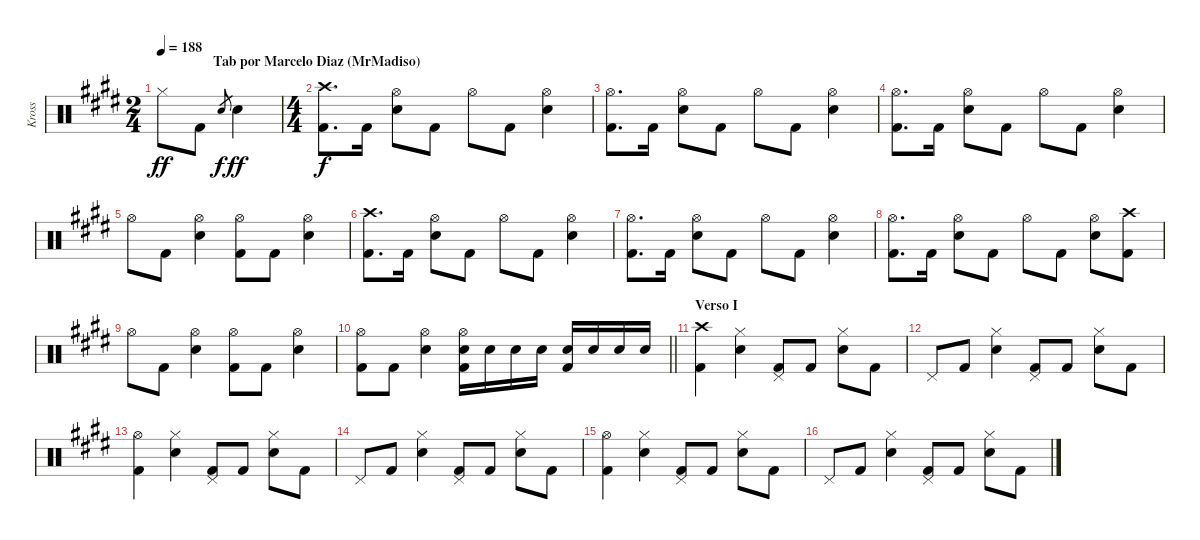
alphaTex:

\track ("Kross" "Kross") {instrument percussion}
\staff {score}
\articulation defaults
\ts (2 4)
\section ("" "                Tab por Marcelo Diaz (MrMadiso)")
\tempo 188
\clef neutral
\ks e "Hi-Hat (closed)".8{dy ff} "Kick (hit) 2".8 "Electric Snare (hit)".8{gr dy f} "Electric Snare (hit)".4{dy ff}
|
\ts (4 4)
("Crash high (hit)" "Kick (hit) 2").8{d dy f} "Kick (hit) 2".16 ("Hi-Hat (open)" "Electric Snare (hit)").8 "Kick (hit) 2".8 "Hi-Hat (open)".8 "Kick (hit) 2".8 ("Hi-Hat (open)" "Electric Snare (hit)").4 |
("Hi-Hat (open)" "Kick (hit) 2").8{d} "Kick (hit) 2".16 ("Hi-Hat (open)" "Electric Snare (hit)").8 "Kick (hit) 2".8 "Hi-Hat (open)".8 "Kick (hit) 2".8 ("Hi-Hat (open)" "Electric Snare (hit)").4 |
("Hi-Hat (open)" "Kick (hit) 2").8{d} "Kick (hit) 2".16 ("Hi-Hat (open)" "Electric Snare (hit)").8 "Kick (hit) 2".8 "Hi-Hat (open)".8 "Kick (hit) 2".8 ("Hi-Hat (open)" "Electric Snare (hit)").4 |
"Hi-Hat (open)".8 "Kick (hit) 2".8 ("Hi-Hat (open)" "Electric Snare (hit)").4 ("Hi-Hat (open)" "Kick (hit) 2").8 "Kick (hit) 2".8 ("Hi-Hat (open)" "Electric Snare (hit)").4 |
("Crash high (hit)" "Kick (hit) 2").8{d} "Kick (hit) 2".16 ("Hi-Hat (open)" "Electric Snare (hit)").8 "Kick (hit) 2".8 "Hi-Hat (open)".8 "Kick (hit) 2".8 ("Hi-Hat (open)" "Electric Snare (hit)").4 |
("Hi-Hat (open)" "Kick (hit) 2").8{d} "Kick (hit) 2".16 ("Hi-Hat (open)" "Electric Snare (hit)").8 "Kick (hit) 2".8 "Hi-Hat (open)".8 "Kick (hit) 2".8 ("Hi-Hat (open)" "Electric Snare (hit)").4 |
("Hi-Hat (open)" "Kick (hit) 2").8{d} "Kick (hit) 2".16 ("Hi-Hat (open)" "Electric Snare (hit)").8 "Kick (hit) 2".8 "Hi-Hat (open)".8 "Kick (hit) 2".8 ("Hi-Hat (open)" "Electric Snare (hit)").8 ("Crash high (hit)" "Kick (hit) 2").8 |
"Hi-Hat (open)".8 "Kick (hit) 2".8 ("Hi-Hat (open)" "Electric Snare (hit)").4 ("Hi-Hat (open)" "Kick (hit) 2").8 "Kick (hit) 2".8 ("Hi-Hat (open)" "Electric Snare (hit)").4 |
\barLineRight lightlight
("Hi-Hat (open)" "Kick (hit) 2").8 "Kick (hit) 2".8 ("Hi-Hat (open)" "Electric Snare (hit)").4 ("Hi-Hat (open)" "Electric Snare (hit)" "Kick (hit) 2").16 "Electric Snare (hit)".16 "Electric Snare (hit)".16 "Electric Snare (hit)".16 ("Electric Snare (hit)" "Kick (hit) 2").16 "Electric Snare (hit)".16 "Electric Snare (hit)".16 "Electric Snare (hit)".16 |
\section ("" "Verso I")
("Crash high (hit)" "Kick (hit) 2").4 ("Hi-Hat (closed)" "Electric Snare (hit)").4 ("Pedal Hi-Hat (hit)" "Kick (hit) 2").8 "Kick (hit) 2".8 ("Hi-Hat (closed)" "Electric Snare (hit)").8 "Kick (hit) 2".8 |
"Pedal Hi-Hat (hit)".8 "Kick (hit) 2".8 ("Hi-Hat (closed)" "Electric Snare (hit)").4 ("Pedal Hi-Hat (hit)" "Kick (hit) 2").8 "Kick (hit) 2".8 ("Hi-Hat (closed)" "Electric Snare (hit)").8 "Kick (hit) 2".8 |
("Hi-Hat (open)" "Kick (hit) 2").4 ("Hi-Hat (closed)" "Electric Snare (hit)").4 ("Pedal Hi-Hat (hit)" "Kick (hit) 2").8 "Kick (hit) 2".8 ("Hi-Hat (closed)" "Electric Snare (hit)").8 "Kick (hit) 2".8 |
"Pedal Hi-Hat (hit)".8 "Kick (hit) 2".8 ("Hi-Hat (closed)" "Electric Snare (hit)").4 ("Pedal Hi-Hat (hit)" "Kick (hit) 2").8 "Kick (hit) 2".8 ("Hi-Hat (closed)" "Electric Snare (hit)").8 "Kick (hit) 2".8 |
("Hi-Hat (open)" "Kick (hit) 2").4 ("Hi-Hat (closed)" "Electric Snare (hit)").4 ("Pedal Hi-Hat (hit)" "Kick (hit) 2").8 "Kick (hit) 2".8 ("Hi-Hat (closed)" "Electric Snare (hit)").8 "Kick (hit) 2".8 |
"Pedal Hi-Hat (hit)".8 "Kick (hit) 2".8 ("Hi-Hat (closed)" "Electric Snare (hit)").4 ("Pedal Hi-Hat (hit)" "Kick (hit) 2").8 "Kick (hit) 2".8 ("Hi-Hat (closed)" "Electric Snare (hit)").8 "Kick (hit) 2".8
